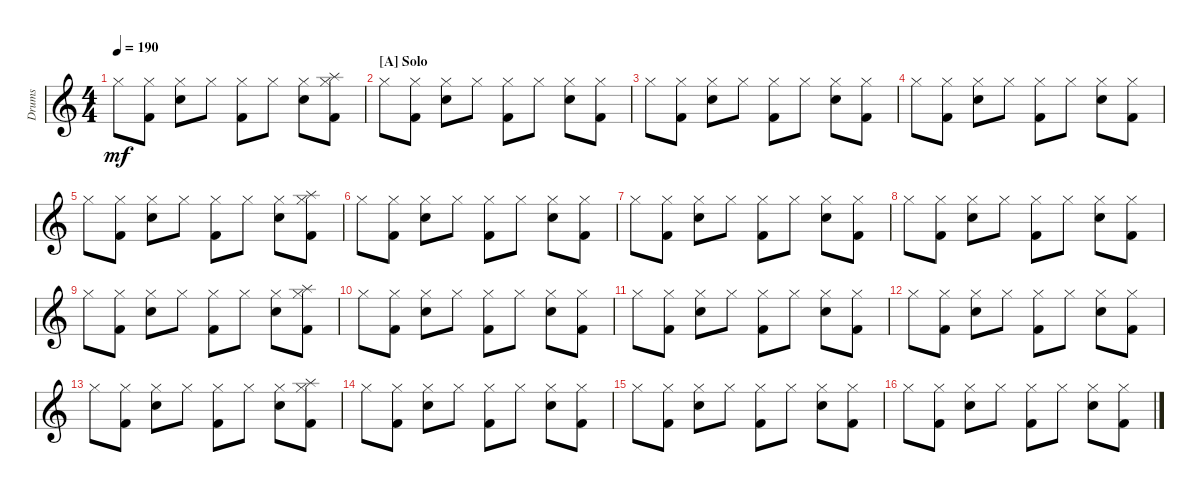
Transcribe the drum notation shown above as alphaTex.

\defaultSystemsLayout 4
\bracketExtendMode groupsimilarinstruments
\otherSystemsTrackNameOrientation horizontal
\track ("Prakarsh" "Drums") {instrument percussion}
\staff {score}
\articulation defaults
\ts (4 4)
\tempo 190
\clef g2
\ks c "Hi-Hat (closed)".8{dy mf beam Down}
("Hi-Hat (closed)" "Kick (hit) 2").8{beam Down} ("Hi-Hat (closed)" "Snare (hit) 2").8{beam Down} "Hi-Hat (closed)".8{beam Down} ("Hi-Hat (closed)" "Kick (hit) 2").8{beam Down} "Hi-Hat (closed)".8{beam Down} ("Hi-Hat (closed)" "Snare (hit) 2").8{beam Down} ("Hi-Hat (closed)" "Kick (hit) 2" "Splash (hit)").8{beam Down} |
\section ("A" "Solo")
"Hi-Hat (closed)".8{beam Down} ("Hi-Hat (closed)" "Kick (hit) 2").8{beam Down} ("Hi-Hat (closed)" "Snare (hit) 2").8{beam Down} "Hi-Hat (closed)".8{beam Down} ("Hi-Hat (closed)" "Kick (hit) 2").8{beam Down} "Hi-Hat (closed)".8{beam Down} ("Hi-Hat (closed)" "Snare (hit) 2").8{beam Down} ("Hi-Hat (closed)" "Kick (hit) 2").8{beam Down} |
"Hi-Hat (closed)".8{beam Down} ("Hi-Hat (closed)" "Kick (hit) 2").8{beam Down} ("Hi-Hat (closed)" "Snare (hit) 2").8{beam Down} "Hi-Hat (closed)".8{beam Down} ("Hi-Hat (closed)" "Kick (hit) 2").8{beam Down} "Hi-Hat (closed)".8{beam Down} ("Hi-Hat (closed)" "Snare (hit) 2").8{beam Down} ("Hi-Hat (closed)" "Kick (hit) 2").8{beam Down} |
"Hi-Hat (closed)".8{beam Down} ("Hi-Hat (closed)" "Kick (hit) 2").8{beam Down} ("Hi-Hat (closed)" "Snare (hit) 2").8{beam Down} "Hi-Hat (closed)".8{beam Down} ("Hi-Hat (closed)" "Kick (hit) 2").8{beam Down} "Hi-Hat (closed)".8{beam Down} ("Hi-Hat (closed)" "Snare (hit) 2").8{beam Down} ("Hi-Hat (closed)" "Kick (hit) 2").8{beam Down} |
"Hi-Hat (closed)".8{beam Down} ("Hi-Hat (closed)" "Kick (hit) 2").8{beam Down} ("Hi-Hat (closed)" "Snare (hit) 2").8{beam Down} "Hi-Hat (closed)".8{beam Down} ("Hi-Hat (closed)" "Kick (hit) 2").8{beam Down} "Hi-Hat (closed)".8{beam Down} ("Hi-Hat (closed)" "Snare (hit) 2").8{beam Down} ("Hi-Hat (closed)" "Kick (hit) 2" "Splash (hit)").8{beam Down} |
"Hi-Hat (closed)".8{beam Down} ("Hi-Hat (closed)" "Kick (hit) 2").8{beam Down} ("Hi-Hat (closed)" "Snare (hit) 2").8{beam Down} "Hi-Hat (closed)".8{beam Down} ("Hi-Hat (closed)" "Kick (hit) 2").8{beam Down} "Hi-Hat (closed)".8{beam Down} ("Hi-Hat (closed)" "Snare (hit) 2").8{beam Down} ("Hi-Hat (closed)" "Kick (hit) 2").8{beam Down} |
"Hi-Hat (closed)".8{beam Down} ("Hi-Hat (closed)" "Kick (hit) 2").8{beam Down} ("Hi-Hat (closed)" "Snare (hit) 2").8{beam Down} "Hi-Hat (closed)".8{beam Down} ("Hi-Hat (closed)" "Kick (hit) 2").8{beam Down} "Hi-Hat (closed)".8{beam Down} ("Hi-Hat (closed)" "Snare (hit) 2").8{beam Down} ("Hi-Hat (closed)" "Kick (hit) 2").8{beam Down} |
"Hi-Hat (closed)".8{beam Down} ("Hi-Hat (closed)" "Kick (hit) 2").8{beam Down} ("Hi-Hat (closed)" "Snare (hit) 2").8{beam Down} "Hi-Hat (closed)".8{beam Down} ("Hi-Hat (closed)" "Kick (hit) 2").8{beam Down} "Hi-Hat (closed)".8{beam Down} ("Hi-Hat (closed)" "Snare (hit) 2").8{beam Down} ("Hi-Hat (closed)" "Kick (hit) 2").8{beam Down} |
"Hi-Hat (closed)".8{beam Down} ("Hi-Hat (closed)" "Kick (hit) 2").8{beam Down} ("Hi-Hat (closed)" "Snare (hit) 2").8{beam Down} "Hi-Hat (closed)".8{beam Down} ("Hi-Hat (closed)" "Kick (hit) 2").8{beam Down} "Hi-Hat (closed)".8{beam Down} ("Hi-Hat (closed)" "Snare (hit) 2").8{beam Down} ("Hi-Hat (closed)" "Kick (hit) 2" "Splash (hit)").8{beam Down} |
"Hi-Hat (closed)".8{beam Down} ("Hi-Hat (closed)" "Kick (hit) 2").8{beam Down} ("Hi-Hat (closed)" "Snare (hit) 2").8{beam Down} "Hi-Hat (closed)".8{beam Down} ("Hi-Hat (closed)" "Kick (hit) 2").8{beam Down} "Hi-Hat (closed)".8{beam Down} ("Hi-Hat (closed)" "Snare (hit) 2").8{beam Down} ("Hi-Hat (closed)" "Kick (hit) 2").8{beam Down} |
"Hi-Hat (closed)".8{beam Down} ("Hi-Hat (closed)" "Kick (hit) 2").8{beam Down} ("Hi-Hat (closed)" "Snare (hit) 2").8{beam Down} "Hi-Hat (closed)".8{beam Down} ("Hi-Hat (closed)" "Kick (hit) 2").8{beam Down} "Hi-Hat (closed)".8{beam Down} ("Hi-Hat (closed)" "Snare (hit) 2").8{beam Down} ("Hi-Hat (closed)" "Kick (hit) 2").8{beam Down} |
"Hi-Hat (closed)".8{beam Down} ("Hi-Hat (closed)" "Kick (hit) 2").8{beam Down} ("Hi-Hat (closed)" "Snare (hit) 2").8{beam Down} "Hi-Hat (closed)".8{beam Down} ("Hi-Hat (closed)" "Kick (hit) 2").8{beam Down} "Hi-Hat (closed)".8{beam Down} ("Hi-Hat (closed)" "Snare (hit) 2").8{beam Down} ("Hi-Hat (closed)" "Kick (hit) 2").8{beam Down} |
"Hi-Hat (closed)".8{beam Down} ("Hi-Hat (closed)" "Kick (hit) 2").8{beam Down} ("Hi-Hat (closed)" "Snare (hit) 2").8{beam Down} "Hi-Hat (closed)".8{beam Down} ("Hi-Hat (closed)" "Kick (hit) 2").8{beam Down} "Hi-Hat (closed)".8{beam Down} ("Hi-Hat (closed)" "Snare (hit) 2").8{beam Down} ("Hi-Hat (closed)" "Kick (hit) 2" "Splash (hit)").8{beam Down} |
"Hi-Hat (closed)".8{beam Down} ("Hi-Hat (closed)" "Kick (hit) 2").8{beam Down} ("Hi-Hat (closed)" "Snare (hit) 2").8{beam Down} "Hi-Hat (closed)".8{beam Down} ("Hi-Hat (closed)" "Kick (hit) 2").8{beam Down} "Hi-Hat (closed)".8{beam Down} ("Hi-Hat (closed)" "Snare (hit) 2").8{beam Down} ("Hi-Hat (closed)" "Kick (hit) 2").8{beam Down} |
"Hi-Hat (closed)".8{beam Down} ("Hi-Hat (closed)" "Kick (hit) 2").8{beam Down} ("Hi-Hat (closed)" "Snare (hit) 2").8{beam Down} "Hi-Hat (closed)".8{beam Down} ("Hi-Hat (closed)" "Kick (hit) 2").8{beam Down} "Hi-Hat (closed)".8{beam Down} ("Hi-Hat (closed)" "Snare (hit) 2").8{beam Down} ("Hi-Hat (closed)" "Kick (hit) 2").8{beam Down} |
"Hi-Hat (closed)".8{beam Down} ("Hi-Hat (closed)" "Kick (hit) 2").8{beam Down} ("Hi-Hat (closed)" "Snare (hit) 2").8{beam Down} "Hi-Hat (closed)".8{beam Down} ("Hi-Hat (closed)" "Kick (hit) 2").8{beam Down} "Hi-Hat (closed)".8{beam Down} ("Hi-Hat (closed)" "Snare (hit) 2").8{beam Down} ("Hi-Hat (closed)" "Kick (hit) 2").8{beam Down}
